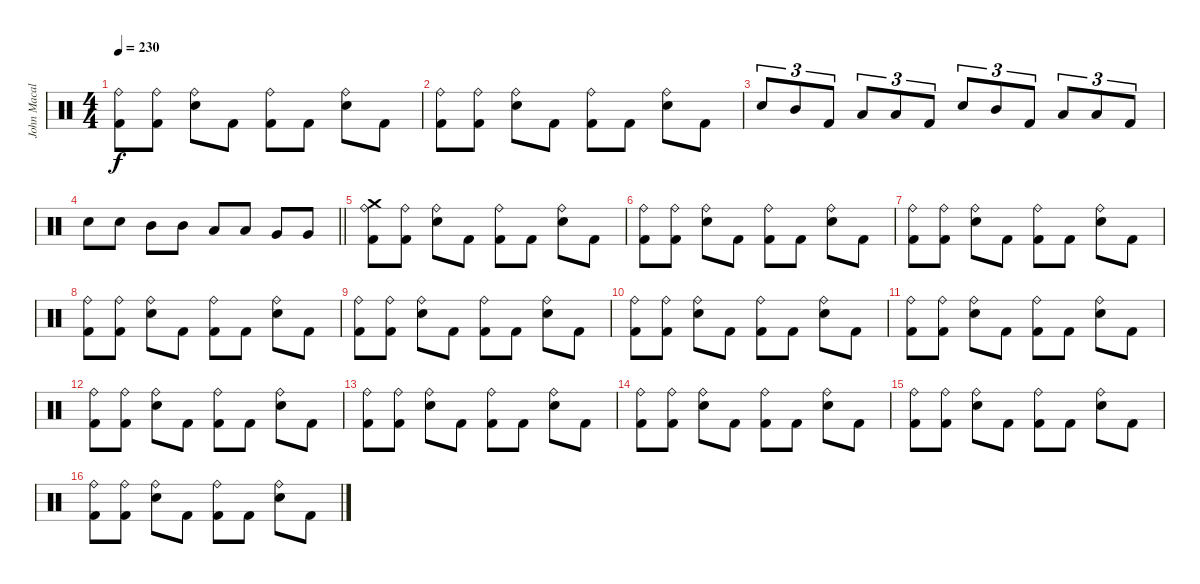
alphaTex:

\track ("John Macaluso" "John Macal") {instrument percussion}
\staff {score}
\articulation defaults
\ts (4 4)
\tempo 230
\clef neutral
\ks c
("Ride (bell)" "Kick (hit) 2").8{dy f} ("Ride (bell)" "Kick (hit) 2").8 ("Ride (bell)" "Snare (hit) 2").8 "Kick (hit) 2".8 ("Ride (bell)" "Kick (hit) 2").8 "Kick (hit) 2".8 ("Ride (bell)" "Snare (hit) 2").8 "Kick (hit) 2".8 |
("Ride (bell)" "Kick (hit) 2").8 ("Ride (bell)" "Kick (hit) 2").8 ("Ride (bell)" "Snare (hit) 2").8 "Kick (hit) 2".8 ("Ride (bell)" "Kick (hit) 2").8 "Kick (hit) 2".8 ("Ride (bell)" "Snare (hit) 2").8 "Kick (hit) 2".8 |
"Snare (hit) 2".8{tu (3 2)} "Mid Tom (hit)".8{tu (3 2)} "Kick (hit) 2".8{tu (3 2)} "Low Tom (hit)".8{tu (3 2)} "Low Tom (hit)".8{tu (3 2)} "Kick (hit) 2".8{tu (3 2)} "Snare (hit) 2".8{tu (3 2)} "Mid Tom (hit)".8{tu (3 2)} "Kick (hit) 2".8{tu (3 2)} "Low Tom (hit)".8{tu (3 2)} "Low Tom (hit)".8{tu (3 2)} "Kick (hit) 2".8{tu (3 2)} |
\barLineRight lightlight "Snare (hit) 2".8 "Snare (hit) 2".8 "Mid Tom (hit)".8 "Mid Tom (hit)".8 "Low Tom (hit)".8 "Low Tom (hit)".8 "Very Low Tom (hit)".8 "Very Low Tom (hit)".8
|
("Crash medium (hit)" "Ride (bell)" "Kick (hit) 2").8 ("Ride (bell)" "Kick (hit) 2").8 ("Ride (bell)" "Snare (hit) 2").8 "Kick (hit) 2".8 ("Ride (bell)" "Kick (hit) 2").8 "Kick (hit) 2".8 ("Ride (bell)" "Snare (hit) 2").8 "Kick (hit) 2".8 |
("Ride (bell)" "Kick (hit) 2").8 ("Ride (bell)" "Kick (hit) 2").8 ("Ride (bell)" "Snare (hit) 2").8 "Kick (hit) 2".8 ("Ride (bell)" "Kick (hit) 2").8 "Kick (hit) 2".8 ("Ride (bell)" "Snare (hit) 2").8 "Kick (hit) 2".8 |
("Ride (bell)" "Kick (hit) 2").8 ("Ride (bell)" "Kick (hit) 2").8 ("Ride (bell)" "Snare (hit) 2").8 "Kick (hit) 2".8 ("Ride (bell)" "Kick (hit) 2").8 "Kick (hit) 2".8 ("Ride (bell)" "Snare (hit) 2").8 "Kick (hit) 2".8 |
("Ride (bell)" "Kick (hit) 2").8 ("Ride (bell)" "Kick (hit) 2").8 ("Ride (bell)" "Snare (hit) 2").8 "Kick (hit) 2".8 ("Ride (bell)" "Kick (hit) 2").8 "Kick (hit) 2".8 ("Ride (bell)" "Snare (hit) 2").8 "Kick (hit) 2".8 |
("Ride (bell)" "Kick (hit) 2").8 ("Ride (bell)" "Kick (hit) 2").8 ("Ride (bell)" "Snare (hit) 2").8 "Kick (hit) 2".8 ("Ride (bell)" "Kick (hit) 2").8 "Kick (hit) 2".8 ("Ride (bell)" "Snare (hit) 2").8 "Kick (hit) 2".8 |
("Ride (bell)" "Kick (hit) 2").8 ("Ride (bell)" "Kick (hit) 2").8 ("Ride (bell)" "Snare (hit) 2").8 "Kick (hit) 2".8 ("Ride (bell)" "Kick (hit) 2").8 "Kick (hit) 2".8 ("Ride (bell)" "Snare (hit) 2").8 "Kick (hit) 2".8 |
("Ride (bell)" "Kick (hit) 2").8 ("Ride (bell)" "Kick (hit) 2").8 ("Ride (bell)" "Snare (hit) 2").8 "Kick (hit) 2".8 ("Ride (bell)" "Kick (hit) 2").8 "Kick (hit) 2".8 ("Ride (bell)" "Snare (hit) 2").8 "Kick (hit) 2".8 |
("Ride (bell)" "Kick (hit) 2").8 ("Ride (bell)" "Kick (hit) 2").8 ("Ride (bell)" "Snare (hit) 2").8 "Kick (hit) 2".8 ("Ride (bell)" "Kick (hit) 2").8 "Kick (hit) 2".8 ("Ride (bell)" "Snare (hit) 2").8 "Kick (hit) 2".8 |
("Ride (bell)" "Kick (hit) 2").8 ("Ride (bell)" "Kick (hit) 2").8 ("Ride (bell)" "Snare (hit) 2").8 "Kick (hit) 2".8 ("Ride (bell)" "Kick (hit) 2").8 "Kick (hit) 2".8 ("Ride (bell)" "Snare (hit) 2").8 "Kick (hit) 2".8 |
("Ride (bell)" "Kick (hit) 2").8 ("Ride (bell)" "Kick (hit) 2").8 ("Ride (bell)" "Snare (hit) 2").8 "Kick (hit) 2".8 ("Ride (bell)" "Kick (hit) 2").8 "Kick (hit) 2".8 ("Ride (bell)" "Snare (hit) 2").8 "Kick (hit) 2".8 |
("Ride (bell)" "Kick (hit) 2").8 ("Ride (bell)" "Kick (hit) 2").8 ("Ride (bell)" "Snare (hit) 2").8 "Kick (hit) 2".8 ("Ride (bell)" "Kick (hit) 2").8 "Kick (hit) 2".8 ("Ride (bell)" "Snare (hit) 2").8 "Kick (hit) 2".8 |
("Ride (bell)" "Kick (hit) 2").8 ("Ride (bell)" "Kick (hit) 2").8 ("Ride (bell)" "Snare (hit) 2").8 "Kick (hit) 2".8 ("Ride (bell)" "Kick (hit) 2").8 "Kick (hit) 2".8 ("Ride (bell)" "Snare (hit) 2").8 "Kick (hit) 2".8
